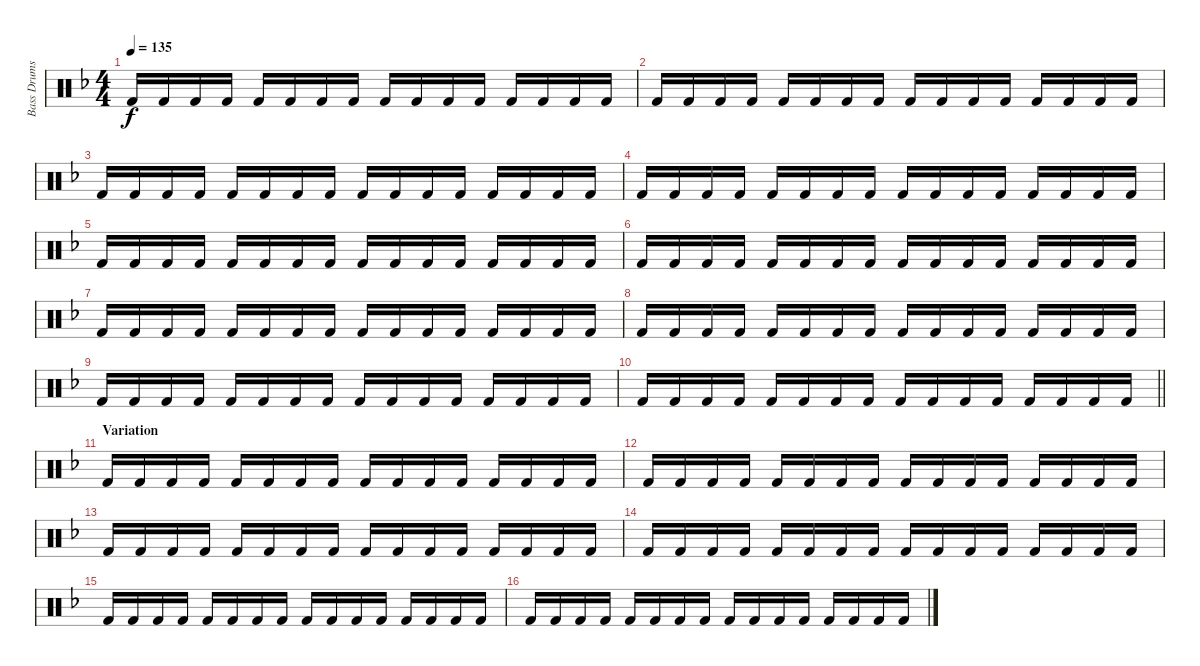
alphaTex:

\track ("Bass Drums" "Bass Drums") {instrument percussion}
\staff {score}
\articulation defaults
\ts (4 4)
\tempo 135
\clef neutral
\ks dminor "Kick (hit) 2".16{dy f} "Kick (hit) 2".16 "Kick (hit) 2".16 "Kick (hit) 2".16 "Kick (hit) 2".16 "Kick (hit) 2".16 "Kick (hit) 2".16 "Kick (hit) 2".16 "Kick (hit) 2".16 "Kick (hit) 2".16 "Kick (hit) 2".16 "Kick (hit) 2".16 "Kick (hit) 2".16 "Kick (hit) 2".16 "Kick (hit) 2".16 "Kick (hit) 2".16
|
"Kick (hit) 2".16 "Kick (hit) 2".16 "Kick (hit) 2".16 "Kick (hit) 2".16 "Kick (hit) 2".16 "Kick (hit) 2".16 "Kick (hit) 2".16 "Kick (hit) 2".16 "Kick (hit) 2".16 "Kick (hit) 2".16 "Kick (hit) 2".16 "Kick (hit) 2".16 "Kick (hit) 2".16 "Kick (hit) 2".16 "Kick (hit) 2".16 "Kick (hit) 2".16 |
"Kick (hit) 2".16 "Kick (hit) 2".16 "Kick (hit) 2".16 "Kick (hit) 2".16 "Kick (hit) 2".16 "Kick (hit) 2".16 "Kick (hit) 2".16 "Kick (hit) 2".16 "Kick (hit) 2".16 "Kick (hit) 2".16 "Kick (hit) 2".16 "Kick (hit) 2".16 "Kick (hit) 2".16 "Kick (hit) 2".16 "Kick (hit) 2".16 "Kick (hit) 2".16 |
"Kick (hit) 2".16 "Kick (hit) 2".16 "Kick (hit) 2".16 "Kick (hit) 2".16 "Kick (hit) 2".16 "Kick (hit) 2".16 "Kick (hit) 2".16 "Kick (hit) 2".16 "Kick (hit) 2".16 "Kick (hit) 2".16 "Kick (hit) 2".16 "Kick (hit) 2".16 "Kick (hit) 2".16 "Kick (hit) 2".16 "Kick (hit) 2".16 "Kick (hit) 2".16 |
"Kick (hit) 2".16 "Kick (hit) 2".16 "Kick (hit) 2".16 "Kick (hit) 2".16 "Kick (hit) 2".16 "Kick (hit) 2".16 "Kick (hit) 2".16 "Kick (hit) 2".16 "Kick (hit) 2".16 "Kick (hit) 2".16 "Kick (hit) 2".16 "Kick (hit) 2".16 "Kick (hit) 2".16 "Kick (hit) 2".16 "Kick (hit) 2".16 "Kick (hit) 2".16 |
"Kick (hit) 2".16 "Kick (hit) 2".16 "Kick (hit) 2".16 "Kick (hit) 2".16 "Kick (hit) 2".16 "Kick (hit) 2".16 "Kick (hit) 2".16 "Kick (hit) 2".16 "Kick (hit) 2".16 "Kick (hit) 2".16 "Kick (hit) 2".16 "Kick (hit) 2".16 "Kick (hit) 2".16 "Kick (hit) 2".16 "Kick (hit) 2".16 "Kick (hit) 2".16 |
"Kick (hit) 2".16 "Kick (hit) 2".16 "Kick (hit) 2".16 "Kick (hit) 2".16 "Kick (hit) 2".16 "Kick (hit) 2".16 "Kick (hit) 2".16 "Kick (hit) 2".16 "Kick (hit) 2".16 "Kick (hit) 2".16 "Kick (hit) 2".16 "Kick (hit) 2".16 "Kick (hit) 2".16 "Kick (hit) 2".16 "Kick (hit) 2".16 "Kick (hit) 2".16 |
"Kick (hit) 2".16 "Kick (hit) 2".16 "Kick (hit) 2".16 "Kick (hit) 2".16 "Kick (hit) 2".16 "Kick (hit) 2".16 "Kick (hit) 2".16 "Kick (hit) 2".16 "Kick (hit) 2".16 "Kick (hit) 2".16 "Kick (hit) 2".16 "Kick (hit) 2".16 "Kick (hit) 2".16 "Kick (hit) 2".16 "Kick (hit) 2".16 "Kick (hit) 2".16 |
"Kick (hit) 2".16 "Kick (hit) 2".16 "Kick (hit) 2".16 "Kick (hit) 2".16 "Kick (hit) 2".16 "Kick (hit) 2".16 "Kick (hit) 2".16 "Kick (hit) 2".16 "Kick (hit) 2".16 "Kick (hit) 2".16 "Kick (hit) 2".16 "Kick (hit) 2".16 "Kick (hit) 2".16 "Kick (hit) 2".16 "Kick (hit) 2".16 "Kick (hit) 2".16 |
\barLineRight lightlight "Kick (hit) 2".16 "Kick (hit) 2".16 "Kick (hit) 2".16 "Kick (hit) 2".16 "Kick (hit) 2".16 "Kick (hit) 2".16 "Kick (hit) 2".16 "Kick (hit) 2".16 "Kick (hit) 2".16 "Kick (hit) 2".16 "Kick (hit) 2".16 "Kick (hit) 2".16 "Kick (hit) 2".16 "Kick (hit) 2".16 "Kick (hit) 2".16 "Kick (hit) 2".16
|
\section ("" "Variation")
"Kick (hit) 2".16 "Kick (hit) 2".16 "Kick (hit) 2".16 "Kick (hit) 2".16 "Kick (hit) 2".16 "Kick (hit) 2".16 "Kick (hit) 2".16 "Kick (hit) 2".16 "Kick (hit) 2".16 "Kick (hit) 2".16 "Kick (hit) 2".16 "Kick (hit) 2".16 "Kick (hit) 2".16 "Kick (hit) 2".16 "Kick (hit) 2".16 "Kick (hit) 2".16 |
"Kick (hit) 2".16 "Kick (hit) 2".16 "Kick (hit) 2".16 "Kick (hit) 2".16 "Kick (hit) 2".16 "Kick (hit) 2".16 "Kick (hit) 2".16 "Kick (hit) 2".16 "Kick (hit) 2".16 "Kick (hit) 2".16 "Kick (hit) 2".16 "Kick (hit) 2".16 "Kick (hit) 2".16 "Kick (hit) 2".16 "Kick (hit) 2".16 "Kick (hit) 2".16 |
"Kick (hit) 2".16 "Kick (hit) 2".16 "Kick (hit) 2".16 "Kick (hit) 2".16 "Kick (hit) 2".16 "Kick (hit) 2".16 "Kick (hit) 2".16 "Kick (hit) 2".16 "Kick (hit) 2".16 "Kick (hit) 2".16 "Kick (hit) 2".16 "Kick (hit) 2".16 "Kick (hit) 2".16 "Kick (hit) 2".16 "Kick (hit) 2".16 "Kick (hit) 2".16 |
"Kick (hit) 2".16 "Kick (hit) 2".16 "Kick (hit) 2".16 "Kick (hit) 2".16 "Kick (hit) 2".16 "Kick (hit) 2".16 "Kick (hit) 2".16 "Kick (hit) 2".16 "Kick (hit) 2".16 "Kick (hit) 2".16 "Kick (hit) 2".16 "Kick (hit) 2".16 "Kick (hit) 2".16 "Kick (hit) 2".16 "Kick (hit) 2".16 "Kick (hit) 2".16 |
"Kick (hit) 2".16 "Kick (hit) 2".16 "Kick (hit) 2".16 "Kick (hit) 2".16 "Kick (hit) 2".16 "Kick (hit) 2".16 "Kick (hit) 2".16 "Kick (hit) 2".16 "Kick (hit) 2".16 "Kick (hit) 2".16 "Kick (hit) 2".16 "Kick (hit) 2".16 "Kick (hit) 2".16 "Kick (hit) 2".16 "Kick (hit) 2".16 "Kick (hit) 2".16 |
"Kick (hit) 2".16 "Kick (hit) 2".16 "Kick (hit) 2".16 "Kick (hit) 2".16 "Kick (hit) 2".16 "Kick (hit) 2".16 "Kick (hit) 2".16 "Kick (hit) 2".16 "Kick (hit) 2".16 "Kick (hit) 2".16 "Kick (hit) 2".16 "Kick (hit) 2".16 "Kick (hit) 2".16 "Kick (hit) 2".16 "Kick (hit) 2".16 "Kick (hit) 2".16
